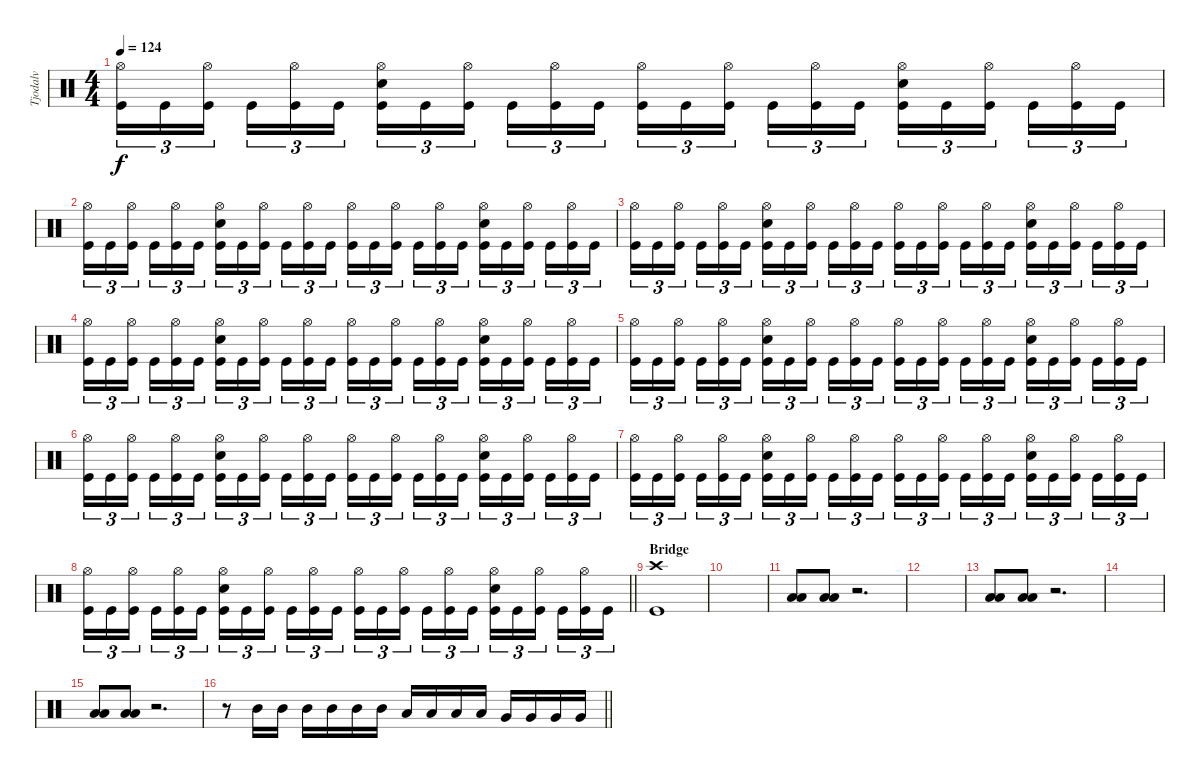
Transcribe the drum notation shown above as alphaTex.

\track ("Tjodalv" "Tjodalv") {instrument percussion}
\staff {score}
\articulation defaults
\ts (4 4)
\tempo 124
\clef neutral
\ks c
("Kick (hit)" "Hi-Hat (open)").16{tu (3 2) dy f} "Kick (hit)".16{tu (3 2)} ("Kick (hit)" "Hi-Hat (open)").16{tu (3 2) beam splitsecondary} "Kick (hit)".16{tu (3 2)} ("Kick (hit)" "Hi-Hat (open)").16{tu (3 2)} "Kick (hit)".16{tu (3 2)} ("Kick (hit)" "Snare (hit) 2" "Hi-Hat (open)").16{tu (3 2)} "Kick (hit)".16{tu (3 2)} ("Kick (hit)" "Hi-Hat (open)").16{tu (3 2) beam splitsecondary} "Kick (hit)".16{tu (3 2)} ("Kick (hit)" "Hi-Hat (open)").16{tu (3 2)} "Kick (hit)".16{tu (3 2)} ("Kick (hit)" "Hi-Hat (open)").16{tu (3 2)} "Kick (hit)".16{tu (3 2)} ("Kick (hit)" "Hi-Hat (open)").16{tu (3 2) beam splitsecondary} "Kick (hit)".16{tu (3 2)} ("Kick (hit)" "Hi-Hat (open)").16{tu (3 2)} "Kick (hit)".16{tu (3 2)} ("Kick (hit)" "Snare (hit) 2" "Hi-Hat (open)").16{tu (3 2)} "Kick (hit)".16{tu (3 2)} ("Kick (hit)" "Hi-Hat (open)").16{tu (3 2) beam splitsecondary} "Kick (hit)".16{tu (3 2)} ("Kick (hit)" "Hi-Hat (open)").16{tu (3 2)} "Kick (hit)".16{tu (3 2)} |
("Kick (hit)" "Hi-Hat (open)").16{tu (3 2)} "Kick (hit)".16{tu (3 2)} ("Kick (hit)" "Hi-Hat (open)").16{tu (3 2) beam splitsecondary} "Kick (hit)".16{tu (3 2)} ("Kick (hit)" "Hi-Hat (open)").16{tu (3 2)} "Kick (hit)".16{tu (3 2)} ("Kick (hit)" "Snare (hit) 2" "Hi-Hat (open)").16{tu (3 2)} "Kick (hit)".16{tu (3 2)} ("Kick (hit)" "Hi-Hat (open)").16{tu (3 2) beam splitsecondary} "Kick (hit)".16{tu (3 2)} ("Kick (hit)" "Hi-Hat (open)").16{tu (3 2)} "Kick (hit)".16{tu (3 2)} ("Kick (hit)" "Hi-Hat (open)").16{tu (3 2)} "Kick (hit)".16{tu (3 2)} ("Kick (hit)" "Hi-Hat (open)").16{tu (3 2) beam splitsecondary} "Kick (hit)".16{tu (3 2)} ("Kick (hit)" "Hi-Hat (open)").16{tu (3 2)} "Kick (hit)".16{tu (3 2)} ("Kick (hit)" "Snare (hit) 2" "Hi-Hat (open)").16{tu (3 2)} "Kick (hit)".16{tu (3 2)} ("Kick (hit)" "Hi-Hat (open)").16{tu (3 2) beam splitsecondary} "Kick (hit)".16{tu (3 2)} ("Kick (hit)" "Hi-Hat (open)").16{tu (3 2)} "Kick (hit)".16{tu (3 2)} |
("Kick (hit)" "Hi-Hat (open)").16{tu (3 2)} "Kick (hit)".16{tu (3 2)} ("Kick (hit)" "Hi-Hat (open)").16{tu (3 2) beam splitsecondary} "Kick (hit)".16{tu (3 2)} ("Kick (hit)" "Hi-Hat (open)").16{tu (3 2)} "Kick (hit)".16{tu (3 2)} ("Kick (hit)" "Snare (hit) 2" "Hi-Hat (open)").16{tu (3 2)} "Kick (hit)".16{tu (3 2)} ("Kick (hit)" "Hi-Hat (open)").16{tu (3 2) beam splitsecondary} "Kick (hit)".16{tu (3 2)} ("Kick (hit)" "Hi-Hat (open)").16{tu (3 2)} "Kick (hit)".16{tu (3 2)} ("Kick (hit)" "Hi-Hat (open)").16{tu (3 2)} "Kick (hit)".16{tu (3 2)} ("Kick (hit)" "Hi-Hat (open)").16{tu (3 2) beam splitsecondary} "Kick (hit)".16{tu (3 2)} ("Kick (hit)" "Hi-Hat (open)").16{tu (3 2)} "Kick (hit)".16{tu (3 2)} ("Kick (hit)" "Snare (hit) 2" "Hi-Hat (open)").16{tu (3 2)} "Kick (hit)".16{tu (3 2)} ("Kick (hit)" "Hi-Hat (open)").16{tu (3 2) beam splitsecondary} "Kick (hit)".16{tu (3 2)} ("Kick (hit)" "Hi-Hat (open)").16{tu (3 2)} "Kick (hit)".16{tu (3 2)} |
("Kick (hit)" "Hi-Hat (open)").16{tu (3 2)} "Kick (hit)".16{tu (3 2)} ("Kick (hit)" "Hi-Hat (open)").16{tu (3 2) beam splitsecondary} "Kick (hit)".16{tu (3 2)} ("Kick (hit)" "Hi-Hat (open)").16{tu (3 2)} "Kick (hit)".16{tu (3 2)} ("Kick (hit)" "Snare (hit) 2" "Hi-Hat (open)").16{tu (3 2)} "Kick (hit)".16{tu (3 2)} ("Kick (hit)" "Hi-Hat (open)").16{tu (3 2) beam splitsecondary} "Kick (hit)".16{tu (3 2)} ("Kick (hit)" "Hi-Hat (open)").16{tu (3 2)} "Kick (hit)".16{tu (3 2)} ("Kick (hit)" "Hi-Hat (open)").16{tu (3 2)} "Kick (hit)".16{tu (3 2)} ("Kick (hit)" "Hi-Hat (open)").16{tu (3 2) beam splitsecondary} "Kick (hit)".16{tu (3 2)} ("Kick (hit)" "Hi-Hat (open)").16{tu (3 2)} "Kick (hit)".16{tu (3 2)} ("Kick (hit)" "Snare (hit) 2" "Hi-Hat (open)").16{tu (3 2)} "Kick (hit)".16{tu (3 2)} ("Kick (hit)" "Hi-Hat (open)").16{tu (3 2) beam splitsecondary} "Kick (hit)".16{tu (3 2)} ("Kick (hit)" "Hi-Hat (open)").16{tu (3 2)} "Kick (hit)".16{tu (3 2)} |
("Kick (hit)" "Hi-Hat (open)").16{tu (3 2)} "Kick (hit)".16{tu (3 2)} ("Kick (hit)" "Hi-Hat (open)").16{tu (3 2) beam splitsecondary} "Kick (hit)".16{tu (3 2)} ("Kick (hit)" "Hi-Hat (open)").16{tu (3 2)} "Kick (hit)".16{tu (3 2)} ("Kick (hit)" "Snare (hit) 2" "Hi-Hat (open)").16{tu (3 2)} "Kick (hit)".16{tu (3 2)} ("Kick (hit)" "Hi-Hat (open)").16{tu (3 2) beam splitsecondary} "Kick (hit)".16{tu (3 2)} ("Kick (hit)" "Hi-Hat (open)").16{tu (3 2)} "Kick (hit)".16{tu (3 2)} ("Kick (hit)" "Hi-Hat (open)").16{tu (3 2)} "Kick (hit)".16{tu (3 2)} ("Kick (hit)" "Hi-Hat (open)").16{tu (3 2) beam splitsecondary} "Kick (hit)".16{tu (3 2)} ("Kick (hit)" "Hi-Hat (open)").16{tu (3 2)} "Kick (hit)".16{tu (3 2)} ("Kick (hit)" "Snare (hit) 2" "Hi-Hat (open)").16{tu (3 2)} "Kick (hit)".16{tu (3 2)} ("Kick (hit)" "Hi-Hat (open)").16{tu (3 2) beam splitsecondary} "Kick (hit)".16{tu (3 2)} ("Kick (hit)" "Hi-Hat (open)").16{tu (3 2)} "Kick (hit)".16{tu (3 2)} |
("Kick (hit)" "Hi-Hat (open)").16{tu (3 2)} "Kick (hit)".16{tu (3 2)} ("Kick (hit)" "Hi-Hat (open)").16{tu (3 2) beam splitsecondary} "Kick (hit)".16{tu (3 2)} ("Kick (hit)" "Hi-Hat (open)").16{tu (3 2)} "Kick (hit)".16{tu (3 2)} ("Kick (hit)" "Snare (hit) 2" "Hi-Hat (open)").16{tu (3 2)} "Kick (hit)".16{tu (3 2)} ("Kick (hit)" "Hi-Hat (open)").16{tu (3 2) beam splitsecondary} "Kick (hit)".16{tu (3 2)} ("Kick (hit)" "Hi-Hat (open)").16{tu (3 2)} "Kick (hit)".16{tu (3 2)} ("Kick (hit)" "Hi-Hat (open)").16{tu (3 2)} "Kick (hit)".16{tu (3 2)} ("Kick (hit)" "Hi-Hat (open)").16{tu (3 2) beam splitsecondary} "Kick (hit)".16{tu (3 2)} ("Kick (hit)" "Hi-Hat (open)").16{tu (3 2)} "Kick (hit)".16{tu (3 2)} ("Kick (hit)" "Snare (hit) 2" "Hi-Hat (open)").16{tu (3 2)} "Kick (hit)".16{tu (3 2)} ("Kick (hit)" "Hi-Hat (open)").16{tu (3 2) beam splitsecondary} "Kick (hit)".16{tu (3 2)} ("Kick (hit)" "Hi-Hat (open)").16{tu (3 2)} "Kick (hit)".16{tu (3 2)} |
("Kick (hit)" "Hi-Hat (open)").16{tu (3 2)} "Kick (hit)".16{tu (3 2)} ("Kick (hit)" "Hi-Hat (open)").16{tu (3 2) beam splitsecondary} "Kick (hit)".16{tu (3 2)} ("Kick (hit)" "Hi-Hat (open)").16{tu (3 2)} "Kick (hit)".16{tu (3 2)} ("Kick (hit)" "Snare (hit) 2" "Hi-Hat (open)").16{tu (3 2)} "Kick (hit)".16{tu (3 2)} ("Kick (hit)" "Hi-Hat (open)").16{tu (3 2) beam splitsecondary} "Kick (hit)".16{tu (3 2)} ("Kick (hit)" "Hi-Hat (open)").16{tu (3 2)} "Kick (hit)".16{tu (3 2)} ("Kick (hit)" "Hi-Hat (open)").16{tu (3 2)} "Kick (hit)".16{tu (3 2)} ("Kick (hit)" "Hi-Hat (open)").16{tu (3 2) beam splitsecondary} "Kick (hit)".16{tu (3 2)} ("Kick (hit)" "Hi-Hat (open)").16{tu (3 2)} "Kick (hit)".16{tu (3 2)} ("Kick (hit)" "Snare (hit) 2" "Hi-Hat (open)").16{tu (3 2)} "Kick (hit)".16{tu (3 2)} ("Kick (hit)" "Hi-Hat (open)").16{tu (3 2) beam splitsecondary} "Kick (hit)".16{tu (3 2)} ("Kick (hit)" "Hi-Hat (open)").16{tu (3 2)} "Kick (hit)".16{tu (3 2)} |
\barLineRight lightlight
("Kick (hit)" "Hi-Hat (open)").16{tu (3 2)} "Kick (hit)".16{tu (3 2)} ("Kick (hit)" "Hi-Hat (open)").16{tu (3 2) beam splitsecondary} "Kick (hit)".16{tu (3 2)} ("Kick (hit)" "Hi-Hat (open)").16{tu (3 2)} "Kick (hit)".16{tu (3 2)} ("Kick (hit)" "Snare (hit) 2" "Hi-Hat (open)").16{tu (3 2)} "Kick (hit)".16{tu (3 2)} ("Kick (hit)" "Hi-Hat (open)").16{tu (3 2) beam splitsecondary} "Kick (hit)".16{tu (3 2)} ("Kick (hit)" "Hi-Hat (open)").16{tu (3 2)} "Kick (hit)".16{tu (3 2)} ("Kick (hit)" "Hi-Hat (open)").16{tu (3 2)} "Kick (hit)".16{tu (3 2)} ("Kick (hit)" "Hi-Hat (open)").16{tu (3 2) beam splitsecondary} "Kick (hit)".16{tu (3 2)} ("Kick (hit)" "Hi-Hat (open)").16{tu (3 2)} "Kick (hit)".16{tu (3 2)} ("Kick (hit)" "Snare (hit) 2" "Hi-Hat (open)").16{tu (3 2)} "Kick (hit)".16{tu (3 2)} ("Kick (hit)" "Hi-Hat (open)").16{tu (3 2) beam splitsecondary} "Kick (hit)".16{tu (3 2)} ("Kick (hit)" "Hi-Hat (open)").16{tu (3 2)} "Kick (hit)".16{tu (3 2)} |
\section ("" "Bridge")
("Crash high (hit)" "Kick (hit)").1 |
|
("Low Tom (hit)" "Low Floor Tom (hit)").8 ("Low Tom (hit)" "Low Floor Tom (hit)").8 r.2{d} |
|
("Low Tom (hit)" "Low Floor Tom (hit)").8 ("Low Tom (hit)" "Low Floor Tom (hit)").8 r.2{d} |
|
("Low Tom (hit)" "Low Floor Tom (hit)").8 ("Low Tom (hit)" "Low Floor Tom (hit)").8 r.2{d} |
\barLineRight lightlight
r.8 "Mid Tom (hit)".16 "Mid Tom (hit)".16 "Mid Tom (hit)".16 "Mid Tom (hit)".16 "Mid Tom (hit)".16 "Mid Tom (hit)".16 "Low Tom (hit)".16 "Low Tom (hit)".16 "Low Tom (hit)".16 "Low Tom (hit)".16 "Very Low Tom (hit)".16 "Very Low Tom (hit)".16 "Very Low Tom (hit)".16 "Very Low Tom (hit)".16
